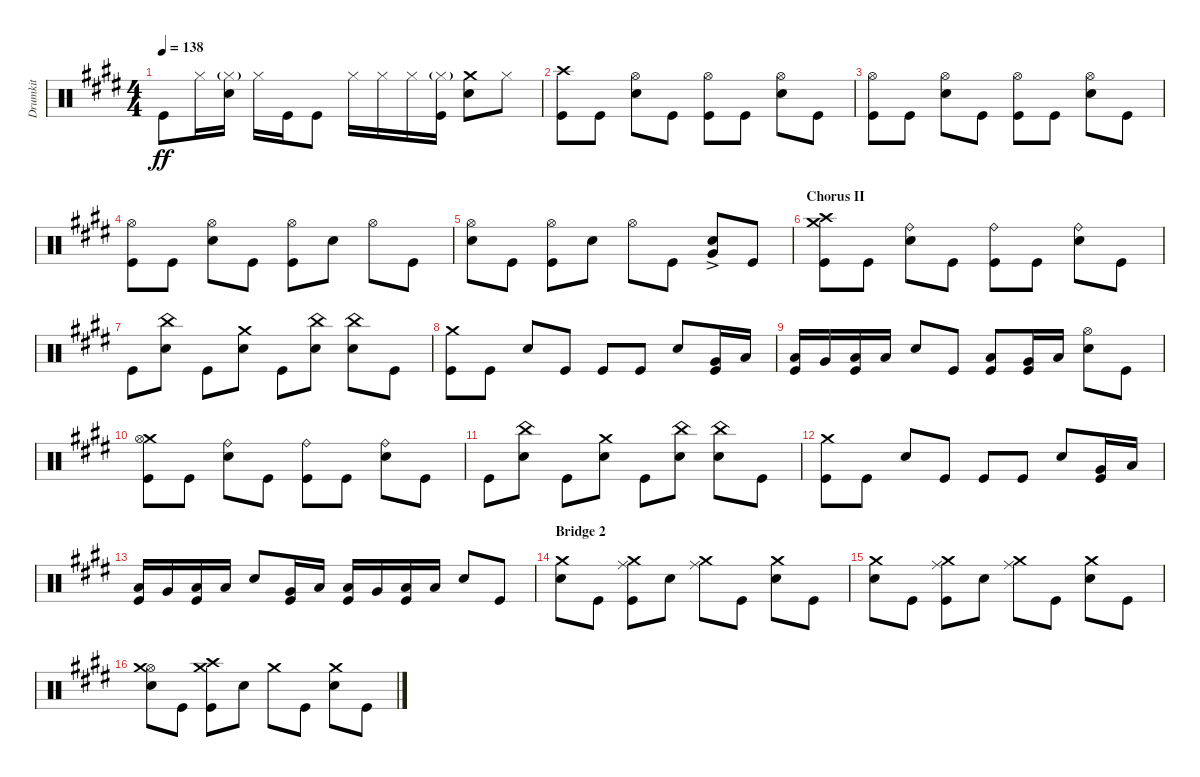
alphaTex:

\track ("Drumkit" "Drumkit") {instrument percussion}
\staff {score}
\articulation defaults
\ts (4 4)
\tempo 138
\clef neutral
\ks c#minor "Kick (hit)".8{dy ff} "Hi-Hat (closed)".16
("Snare (hit) 2" "Hi-Hat (closed)"{g}).16 "Hi-Hat (closed)".16 "Kick (hit)".16 "Kick (hit)".8 "Hi-Hat (closed)".16 "Hi-Hat (closed)".16 "Hi-Hat (closed)".16 ("Kick (hit)" "Hi-Hat (closed)"{g}).16 ("Snare (hit) 2" "Crash medium (hit)").8 "Hi-Hat (closed)".8 |
("Kick (hit)" "Crash high (hit)").8 "Kick (hit)".8 ("Snare (hit) 2" "Hi-Hat (open)").8 "Kick (hit)".8 ("Kick (hit)" "Hi-Hat (open)").8 "Kick (hit)".8 ("Snare (hit) 2" "Hi-Hat (open)").8 "Kick (hit)".8 |
("Kick (hit)" "Hi-Hat (open)").8 "Kick (hit)".8 ("Snare (hit) 2" "Hi-Hat (open)").8 "Kick (hit)".8 ("Kick (hit)" "Hi-Hat (open)").8 "Kick (hit)".8 ("Snare (hit) 2" "Hi-Hat (open)").8 "Kick (hit)".8 |
("Kick (hit)" "Hi-Hat (open)").8 "Kick (hit)".8 ("Snare (hit) 2" "Hi-Hat (open)").8 "Kick (hit)".8 ("Kick (hit)" "Hi-Hat (open)").8 "Snare (hit) 2".8 "Hi-Hat (open)".8 "Kick (hit)".8 |
("Hi-Hat (open)" "Snare (hit) 2").8 "Kick (hit)".8 ("Hi-Hat (open)" "Kick (hit)").8 "Snare (hit) 2".8 "Hi-Hat (open)".8 "Kick (hit)".8 ("Snare (hit) 2"{ac} "Very Low Tom (hit)"{ac}).8 "Kick (hit)".8 |
\section ("" "Chorus II")
("Crash medium (hit)" "Crash high (hit)" "Kick (hit)").8 "Kick (hit)".8 ("Snare (hit) 2" "Ride (bell)").8 "Kick (hit)".8 ("Kick (hit)" "Ride (bell)").8 "Kick (hit)".8 ("Snare (hit) 2" "Ride (bell)").8 "Kick (hit)".8 |
"Kick (hit)".8 ("Snare (hit) 2" "China (hit)").8 "Kick (hit)".8 ("Snare (hit) 2" "Crash medium (hit)").8 "Kick (hit)".8 ("Snare (hit) 2" "China (hit)").8 ("Snare (hit) 2" "China (hit)").8 "Kick (hit)".8 |
("Kick (hit)" "Crash medium (hit)").8 "Kick (hit)".8 "Snare (hit) 2".8 "Kick (hit)".8 "Kick (hit)".8 "Kick (hit)".8 "Snare (hit) 2".8 ("Kick (hit)" "Very Low Tom (hit)").16 "Low Tom (hit)".16 |
("Kick (hit)" "Low Tom (hit)").16 "Very Low Tom (hit)".16 ("Kick (hit)" "Low Floor Tom (hit)").16 "Low Floor Tom (hit)".16 "Snare (hit) 2".8 "Kick (hit)".8 ("Kick (hit)" "Low Tom (hit)").8 ("Kick (hit)" "Very Low Tom (hit)").16 "Low Floor Tom (hit)".16 ("Snare (hit) 2" "Hi-Hat (open)").8 "Kick (hit)".8 |
("Crash medium (hit)" "Kick (hit)" "Hi-Hat (open)").8 "Kick (hit)".8 ("Snare (hit) 2" "Ride (bell)").8 "Kick (hit)".8 ("Kick (hit)" "Ride (bell)").8 "Kick (hit)".8 ("Snare (hit) 2" "Ride (bell)").8 "Kick (hit)".8 |
"Kick (hit)".8 ("Snare (hit) 2" "China (hit)").8 "Kick (hit)".8 ("Snare (hit) 2" "Crash medium (hit)").8 "Kick (hit)".8 ("Snare (hit) 2" "China (hit)").8 ("Snare (hit) 2" "China (hit)").8 "Kick (hit)".8 |
("Kick (hit)" "Crash medium (hit)").8 "Kick (hit)".8 "Snare (hit) 2".8 "Kick (hit)".8 "Kick (hit)".8 "Kick (hit)".8 "Snare (hit) 2".8 ("Kick (hit)" "Very Low Tom (hit)").16 "Low Tom (hit)".16 |
("Kick (hit)" "Low Tom (hit)").16 "Very Low Tom (hit)".16 ("Kick (hit)" "Low Floor Tom (hit)").16 "Low Floor Tom (hit)".16 "Snare (hit) 2".8 ("Kick (hit)" "Very Low Tom (hit)").16 "Low Tom (hit)".16 ("Kick (hit)" "Low Tom (hit)").16 "Very Low Tom (hit)".16 ("Kick (hit)" "Low Floor Tom (hit)").16 "Low Floor Tom (hit)".16 "Snare (hit) 2".8 "Kick (hit)".8 |
\section ("" "Bridge 2")
("Snare (hit) 2" "Crash medium (hit)").8 "Kick (hit)".8 ("Kick (hit)" "Crash medium (hit)" "Ride (middle)").8 "Snare (hit) 2".8 ("Crash medium (hit)" "Ride (middle)").8 "Kick (hit)".8 ("Snare (hit) 2" "Crash medium (hit)").8 "Kick (hit)".8 |
("Snare (hit) 2" "Crash medium (hit)").8 "Kick (hit)".8 ("Kick (hit)" "Crash medium (hit)" "Ride (middle)").8 "Snare (hit) 2".8 ("Crash medium (hit)" "Ride (middle)").8 "Kick (hit)".8 ("Snare (hit) 2" "Crash medium (hit)").8 "Kick (hit)".8 |
("Snare (hit) 2" "Hi-Hat (open)" "Crash medium (hit)").8 "Kick (hit)".8 ("Kick (hit)" "Crash high (hit)" "Crash medium (hit)").8 "Snare (hit) 2".8 "Crash medium (hit)".8 "Kick (hit)".8 ("Snare (hit) 2" "Crash medium (hit)").8 "Kick (hit)".8
